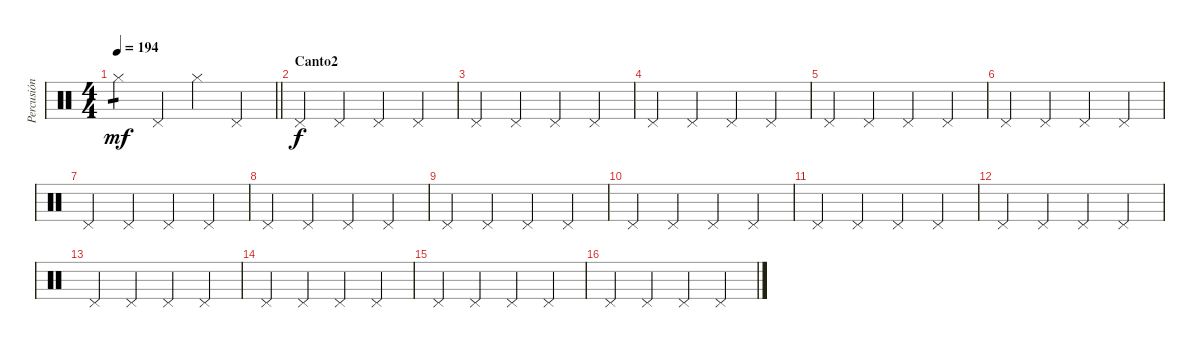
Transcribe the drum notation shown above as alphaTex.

\track ("Percusión" "Percusión") {instrument percussion}
\staff {score}
\articulation defaults
\ts (4 4)
\tempo 194
\clef neutral
\barLineRight lightlight
\ks c "Hi-Hat (closed)".4{tp 1 dy mf} "Pedal Hi-Hat (hit)".4 "Hi-Hat (closed)".4 "Pedal Hi-Hat (hit)".4
|
\section ("" "Canto2")
"Pedal Hi-Hat (hit)".4{dy f} "Pedal Hi-Hat (hit)".4 "Pedal Hi-Hat (hit)".4 "Pedal Hi-Hat (hit)".4 |
"Pedal Hi-Hat (hit)".4 "Pedal Hi-Hat (hit)".4 "Pedal Hi-Hat (hit)".4 "Pedal Hi-Hat (hit)".4 |
"Pedal Hi-Hat (hit)".4 "Pedal Hi-Hat (hit)".4 "Pedal Hi-Hat (hit)".4 "Pedal Hi-Hat (hit)".4 |
"Pedal Hi-Hat (hit)".4 "Pedal Hi-Hat (hit)".4 "Pedal Hi-Hat (hit)".4 "Pedal Hi-Hat (hit)".4 |
"Pedal Hi-Hat (hit)".4 "Pedal Hi-Hat (hit)".4 "Pedal Hi-Hat (hit)".4 "Pedal Hi-Hat (hit)".4 |
"Pedal Hi-Hat (hit)".4 "Pedal Hi-Hat (hit)".4 "Pedal Hi-Hat (hit)".4 "Pedal Hi-Hat (hit)".4 |
"Pedal Hi-Hat (hit)".4 "Pedal Hi-Hat (hit)".4 "Pedal Hi-Hat (hit)".4 "Pedal Hi-Hat (hit)".4 |
"Pedal Hi-Hat (hit)".4 "Pedal Hi-Hat (hit)".4 "Pedal Hi-Hat (hit)".4 "Pedal Hi-Hat (hit)".4 |
"Pedal Hi-Hat (hit)".4 "Pedal Hi-Hat (hit)".4 "Pedal Hi-Hat (hit)".4 "Pedal Hi-Hat (hit)".4 |
"Pedal Hi-Hat (hit)".4 "Pedal Hi-Hat (hit)".4 "Pedal Hi-Hat (hit)".4 "Pedal Hi-Hat (hit)".4 |
"Pedal Hi-Hat (hit)".4 "Pedal Hi-Hat (hit)".4 "Pedal Hi-Hat (hit)".4 "Pedal Hi-Hat (hit)".4 |
"Pedal Hi-Hat (hit)".4 "Pedal Hi-Hat (hit)".4 "Pedal Hi-Hat (hit)".4 "Pedal Hi-Hat (hit)".4 |
"Pedal Hi-Hat (hit)".4 "Pedal Hi-Hat (hit)".4 "Pedal Hi-Hat (hit)".4 "Pedal Hi-Hat (hit)".4 |
"Pedal Hi-Hat (hit)".4 "Pedal Hi-Hat (hit)".4 "Pedal Hi-Hat (hit)".4 "Pedal Hi-Hat (hit)".4 |
"Pedal Hi-Hat (hit)".4 "Pedal Hi-Hat (hit)".4 "Pedal Hi-Hat (hit)".4 "Pedal Hi-Hat (hit)".4
